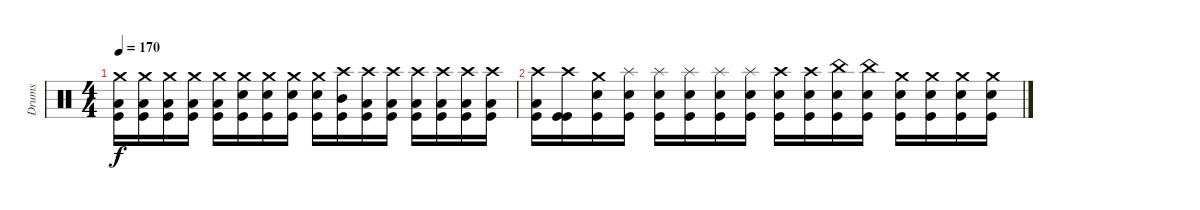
\track ("Drums" "Drums") {instrument percussion}
\staff {score}
\articulation defaults
\ts (4 4)
\tempo 170
\clef neutral
\ks c
("Crash medium (hit)" "Low Tom (hit)" "Kick (hit)").16{dy f} ("Crash medium (hit)" "Low Tom (hit)" "Kick (hit)").16 ("Crash medium (hit)" "Low Tom (hit)" "Kick (hit)").16 ("Crash medium (hit)" "Low Tom (hit)" "Kick (hit)").16 ("Crash medium (hit)" "Low Tom (hit)" "Kick (hit)").16 ("Crash medium (hit)" "Snare (hit) 2" "Kick (hit)").16 ("Crash medium (hit)" "Snare (hit) 2" "Kick (hit)").16 ("Crash medium (hit)" "Snare (hit) 2" "Kick (hit)").16 ("Crash medium (hit)" "Snare (hit) 2" "Kick (hit)").16 ("Crash high (hit)" "Mid Tom (hit)" "Kick (hit)").16 ("Crash high (hit)" "Low Tom (hit)" "Kick (hit)").16 ("Crash high (hit)" "Low Tom (hit)" "Kick (hit)").16 ("Crash high (hit)" "Low Tom (hit)" "Kick (hit)").16 ("Crash high (hit)" "Low Tom (hit)" "Kick (hit)").16 ("Crash high (hit)" "Low Tom (hit)" "Kick (hit)").16 ("Crash high (hit)" "Low Tom (hit)" "Kick (hit)").16 |
("Crash high (hit)" "Low Tom (hit)" "Kick (hit)").16 ("Crash high (hit)" "Kick (hit)" "Kick (hit)").16 ("Crash medium (hit)" "Electric Snare (hit)" "Kick (hit)").16 ("Splash (hit)" "Electric Snare (hit)" "Kick (hit)").16 ("Splash (hit)" "Electric Snare (hit)" "Kick (hit)").16 ("Splash (hit)" "Electric Snare (hit)" "Kick (hit)").16 ("Splash (hit)" "Electric Snare (hit)" "Kick (hit)").16 ("Splash (hit)" "Electric Snare (hit)" "Kick (hit)").16 ("Crash high (hit)" "Electric Snare (hit)" "Kick (hit)").16 ("Crash high (hit)" "Electric Snare (hit)" "Kick (hit)").16 ("China (hit)" "Electric Snare (hit)" "Kick (hit)").16 ("China (hit)" "Electric Snare (hit)" "Kick (hit)").16 ("Crash medium (hit)" "Electric Snare (hit)" "Kick (hit)").16 ("Crash medium (hit)" "Electric Snare (hit)" "Kick (hit)").16 ("Crash medium (hit)" "Electric Snare (hit)" "Kick (hit)").16 ("Crash medium (hit)" "Electric Snare (hit)" "Kick (hit)").16
